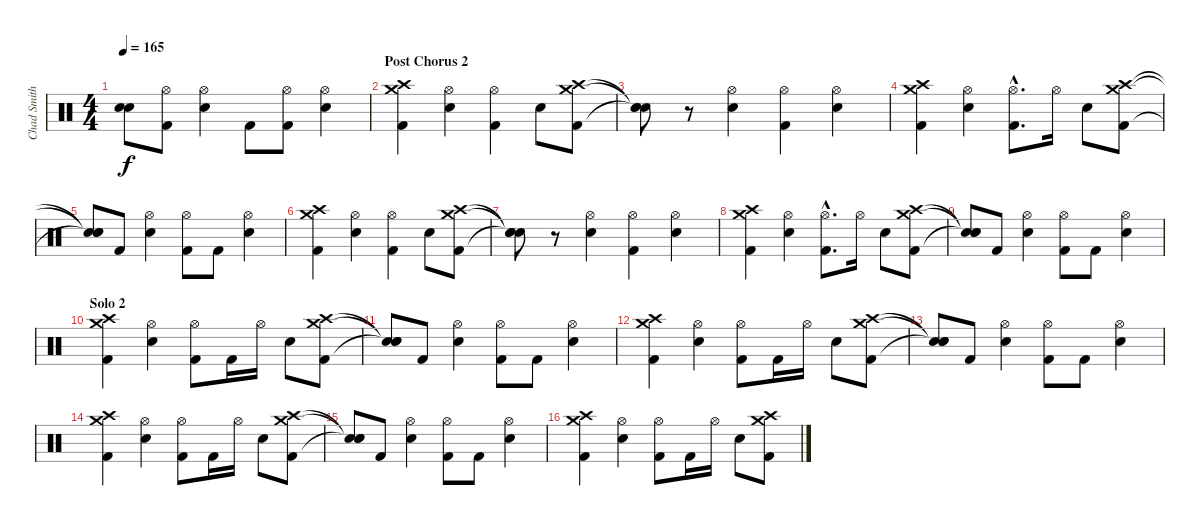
\track ("Chad Smith - Drums" "Chad Smith") {instrument percussion}
\staff {score}
\articulation defaults
\ts (4 4)
\tempo 165
\clef neutral
\ks c
("Snare (hit)"{t} "Snare (hit)"{t}).8{dy f} ("Hi-Hat (open)" "Kick (hit) 2").8 ("Snare (hit) 2" "Hi-Hat (open)").4 "Kick (hit) 2".8 ("Kick (hit) 2" "Hi-Hat (open)").8 ("Snare (hit) 2" "Hi-Hat (open)").4 |
\section ("" "Post Chorus 2")
("Crash medium (hit)" "Crash high (hit)" "Kick (hit) 2").4 ("Hi-Hat (open)" "Snare (hit) 2").4 ("Hi-Hat (open)" "Kick (hit) 2").4 "Snare (hit) 2".8 ("Crash medium (hit)" "Kick (hit) 2" "Crash high (hit)").8 |
("Snare (hit)"{t} "Snare (hit)"{t} "Snare (hit)"{t}).8 r.8 ("Hi-Hat (open)" "Snare (hit) 2").4 ("Hi-Hat (open)" "Kick (hit) 2").4 ("Hi-Hat (open)" "Snare (hit) 2").4 |
("Crash medium (hit)" "Crash high (hit)" "Kick (hit) 2").4 ("Hi-Hat (open)" "Snare (hit) 2").4 ("Hi-Hat (open)"{hac} "Kick (hit) 2").8{d} "Hi-Hat (open)".16 "Snare (hit) 2".8 ("Crash high (hit)" "Crash medium (hit)" "Kick (hit) 2").8 |
("Snare (hit)"{t} "Snare (hit)"{t} "Snare (hit)"{t}).8 "Kick (hit) 2".8 ("Snare (hit) 2" "Hi-Hat (open)").4 ("Kick (hit) 2" "Hi-Hat (open)").8 "Kick (hit) 2".8 ("Snare (hit) 2" "Hi-Hat (open)").4 |
("Crash medium (hit)" "Crash high (hit)" "Kick (hit) 2").4 ("Hi-Hat (open)" "Snare (hit) 2").4 ("Hi-Hat (open)" "Kick (hit) 2").4 "Snare (hit) 2".8 ("Crash medium (hit)" "Kick (hit) 2" "Crash high (hit)").8 |
("Snare (hit)"{t} "Snare (hit)"{t} "Snare (hit)"{t}).8 r.8 ("Hi-Hat (open)" "Snare (hit) 2").4 ("Hi-Hat (open)" "Kick (hit) 2").4 ("Hi-Hat (open)" "Snare (hit) 2").4 |
("Crash medium (hit)" "Crash high (hit)" "Kick (hit) 2").4 ("Hi-Hat (open)" "Snare (hit) 2").4 ("Hi-Hat (open)"{hac} "Kick (hit) 2").8{d} "Hi-Hat (open)".16 "Snare (hit) 2".8 ("Crash high (hit)" "Crash medium (hit)" "Kick (hit) 2").8 |
("Snare (hit)"{t} "Snare (hit)"{t} "Snare (hit)"{t}).8 "Kick (hit) 2".8 ("Snare (hit) 2" "Hi-Hat (open)").4 ("Kick (hit) 2" "Hi-Hat (open)").8 "Kick (hit) 2".8 ("Snare (hit) 2" "Hi-Hat (open)").4 |
\section ("" "Solo 2")
("Crash medium (hit)" "Crash high (hit)" "Kick (hit) 2").4 ("Hi-Hat (open)" "Snare (hit) 2").4 ("Hi-Hat (open)" "Kick (hit) 2").8 "Kick (hit) 2".16 "Hi-Hat (open)".16 "Snare (hit) 2".8 ("Crash high (hit)" "Crash medium (hit)" "Kick (hit) 2").8 |
("Snare (hit)"{t} "Snare (hit)"{t} "Snare (hit)"{t}).8 "Kick (hit) 2".8 ("Snare (hit) 2" "Hi-Hat (open)").4 ("Kick (hit) 2" "Hi-Hat (open)").8 "Kick (hit) 2".8 ("Snare (hit) 2" "Hi-Hat (open)").4 |
("Crash medium (hit)" "Crash high (hit)" "Kick (hit) 2").4 ("Hi-Hat (open)" "Snare (hit) 2").4 ("Hi-Hat (open)" "Kick (hit) 2").8 "Kick (hit) 2".16 "Hi-Hat (open)".16 "Snare (hit) 2".8 ("Crash high (hit)" "Crash medium (hit)" "Kick (hit) 2").8 |
("Snare (hit)"{t} "Snare (hit)"{t} "Snare (hit)"{t}).8 "Kick (hit) 2".8 ("Snare (hit) 2" "Hi-Hat (open)").4 ("Kick (hit) 2" "Hi-Hat (open)").8 "Kick (hit) 2".8 ("Snare (hit) 2" "Hi-Hat (open)").4 |
("Crash medium (hit)" "Crash high (hit)" "Kick (hit) 2").4 ("Hi-Hat (open)" "Snare (hit) 2").4 ("Hi-Hat (open)" "Kick (hit) 2").8 "Kick (hit) 2".16 "Hi-Hat (open)".16 "Snare (hit) 2".8 ("Crash high (hit)" "Crash medium (hit)" "Kick (hit) 2").8 |
("Snare (hit)"{t} "Snare (hit)"{t} "Snare (hit)"{t}).8 "Kick (hit) 2".8 ("Snare (hit) 2" "Hi-Hat (open)").4 ("Kick (hit) 2" "Hi-Hat (open)").8 "Kick (hit) 2".8 ("Snare (hit) 2" "Hi-Hat (open)").4 |
("Crash medium (hit)" "Crash high (hit)" "Kick (hit) 2").4 ("Hi-Hat (open)" "Snare (hit) 2").4 ("Hi-Hat (open)" "Kick (hit) 2").8 "Kick (hit) 2".16 "Hi-Hat (open)".16 "Snare (hit) 2".8 ("Crash high (hit)" "Crash medium (hit)" "Kick (hit) 2").8
